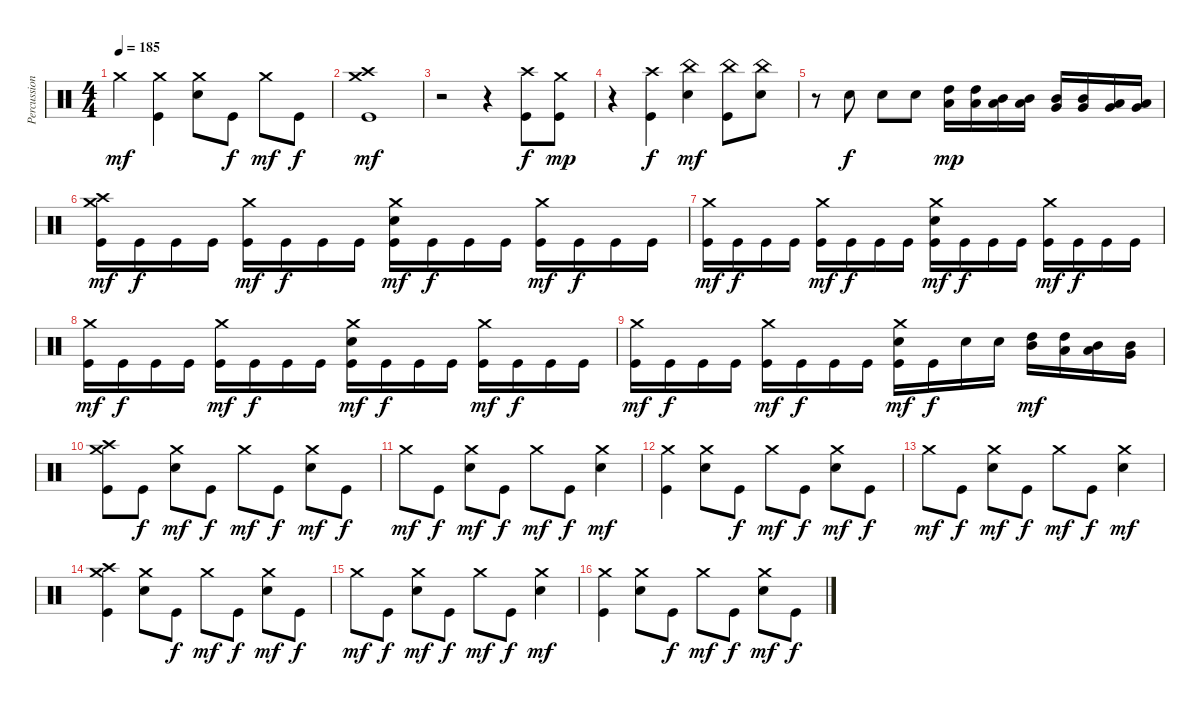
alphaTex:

\track ("Percussions" "Percussion") {instrument percussion}
\staff {score}
\articulation defaults
\ts (4 4)
\tempo 185
\clef neutral
\ks c "Crash medium (hit)".4{dy mf}
("Kick (hit)" "Crash medium (hit)").4 ("Electric Snare (hit)" "Crash medium (hit)").8 "Kick (hit)".8{dy f} "Crash medium (hit)".8{dy mf} "Kick (hit)".8{dy f} |
("Kick (hit)" "Crash medium (hit)" "Crash high (hit)").1{dy mf} |
r.2 r.4 ("Kick (hit)" "Crash high (hit)").8{dy f} ("Kick (hit)" "Crash medium (hit)").8{dy mp} |
r.4 ("Kick (hit)" "Crash high (hit)").4{dy f} ("Electric Snare (hit)" "China (hit)").4{dy mf} ("Kick (hit)" "China (hit)").8 ("Electric Snare (hit)" "China (hit)").8 |
r.8 "Electric Snare (hit)".8{dy f} "Electric Snare (hit)".8 "Electric Snare (hit)".8 ("Low Tom (hit)" "High Tom (hit)").16{dy mp} ("Low Tom (hit)" "High Tom (hit)").16 ("Low Tom (hit)" "Mid Tom (hit)").16 ("Low Tom (hit)" "Mid Tom (hit)").16 ("Very Low Tom (hit)" "Mid Tom (hit)").16 ("Very Low Tom (hit)" "Mid Tom (hit)").16 ("Very Low Tom (hit)" "Low Tom (hit)").16 ("Very Low Tom (hit)" "Low Tom (hit)").16 |
("Kick (hit)" "Crash medium (hit)" "Crash high (hit)").16{dy mf} "Kick (hit)".16{dy f} "Kick (hit)".16 "Kick (hit)".16 ("Kick (hit)" "Crash medium (hit)").16{dy mf} "Kick (hit)".16{dy f} "Kick (hit)".16 "Kick (hit)".16 ("Kick (hit)" "Electric Snare (hit)" "Crash medium (hit)").16{dy mf} "Kick (hit)".16{dy f} "Kick (hit)".16 "Kick (hit)".16 ("Kick (hit)" "Crash medium (hit)").16{dy mf} "Kick (hit)".16{dy f} "Kick (hit)".16 "Kick (hit)".16 |
("Kick (hit)" "Crash medium (hit)").16{dy mf} "Kick (hit)".16{dy f} "Kick (hit)".16 "Kick (hit)".16 ("Kick (hit)" "Crash medium (hit)").16{dy mf} "Kick (hit)".16{dy f} "Kick (hit)".16 "Kick (hit)".16 ("Kick (hit)" "Electric Snare (hit)" "Crash medium (hit)").16{dy mf} "Kick (hit)".16{dy f} "Kick (hit)".16 "Kick (hit)".16 ("Kick (hit)" "Crash medium (hit)").16{dy mf} "Kick (hit)".16{dy f} "Kick (hit)".16 "Kick (hit)".16 |
("Kick (hit)" "Crash medium (hit)").16{dy mf} "Kick (hit)".16{dy f} "Kick (hit)".16 "Kick (hit)".16 ("Kick (hit)" "Crash medium (hit)").16{dy mf} "Kick (hit)".16{dy f} "Kick (hit)".16 "Kick (hit)".16 ("Kick (hit)" "Electric Snare (hit)" "Crash medium (hit)").16{dy mf} "Kick (hit)".16{dy f} "Kick (hit)".16 "Kick (hit)".16 ("Kick (hit)" "Crash medium (hit)").16{dy mf} "Kick (hit)".16{dy f} "Kick (hit)".16 "Kick (hit)".16 |
("Kick (hit)" "Crash medium (hit)").16{dy mf} "Kick (hit)".16{dy f} "Kick (hit)".16 "Kick (hit)".16 ("Kick (hit)" "Crash medium (hit)").16{dy mf} "Kick (hit)".16{dy f} "Kick (hit)".16 "Kick (hit)".16 ("Kick (hit)" "Electric Snare (hit)" "Crash medium (hit)").16{dy mf} "Kick (hit)".16{dy f} "Electric Snare (hit)".16 "Electric Snare (hit)".16 ("Mid Tom (hit)" "High Tom (hit)").16{dy mf} ("Low Tom (hit)" "High Tom (hit)").16 ("Low Tom (hit)" "Mid Tom (hit)").16 ("Very Low Tom (hit)" "Mid Tom (hit)").16 |
("Kick (hit)" "Crash medium (hit)" "Crash high (hit)").8 "Kick (hit)".8{dy f} ("Electric Snare (hit)" "Crash medium (hit)").8{dy mf} "Kick (hit)".8{dy f} "Crash medium (hit)".8{dy mf} "Kick (hit)".8{dy f} ("Electric Snare (hit)" "Crash medium (hit)").8{dy mf} "Kick (hit)".8{dy f} |
"Crash medium (hit)".8{dy mf} "Kick (hit)".8{dy f} ("Electric Snare (hit)" "Crash medium (hit)").8{dy mf} "Kick (hit)".8{dy f} "Crash medium (hit)".8{dy mf} "Kick (hit)".8{dy f} ("Electric Snare (hit)" "Crash medium (hit)").4{dy mf} |
("Kick (hit)" "Crash medium (hit)").4 ("Electric Snare (hit)" "Crash medium (hit)").8 "Kick (hit)".8{dy f} "Crash medium (hit)".8{dy mf} "Kick (hit)".8{dy f} ("Electric Snare (hit)" "Crash medium (hit)").8{dy mf} "Kick (hit)".8{dy f} |
"Crash medium (hit)".8{dy mf} "Kick (hit)".8{dy f} ("Electric Snare (hit)" "Crash medium (hit)").8{dy mf} "Kick (hit)".8{dy f} "Crash medium (hit)".8{dy mf} "Kick (hit)".8{dy f} ("Electric Snare (hit)" "Crash medium (hit)").4{dy mf} |
("Kick (hit)" "Crash medium (hit)" "Crash high (hit)").4 ("Electric Snare (hit)" "Crash medium (hit)").8 "Kick (hit)".8{dy f} "Crash medium (hit)".8{dy mf} "Kick (hit)".8{dy f} ("Electric Snare (hit)" "Crash medium (hit)").8{dy mf} "Kick (hit)".8{dy f} |
"Crash medium (hit)".8{dy mf} "Kick (hit)".8{dy f} ("Electric Snare (hit)" "Crash medium (hit)").8{dy mf} "Kick (hit)".8{dy f} "Crash medium (hit)".8{dy mf} "Kick (hit)".8{dy f} ("Electric Snare (hit)" "Crash medium (hit)").4{dy mf} |
("Kick (hit)" "Crash medium (hit)").4 ("Electric Snare (hit)" "Crash medium (hit)").8 "Kick (hit)".8{dy f} "Crash medium (hit)".8{dy mf} "Kick (hit)".8{dy f} ("Electric Snare (hit)" "Crash medium (hit)").8{dy mf} "Kick (hit)".8{dy f}
